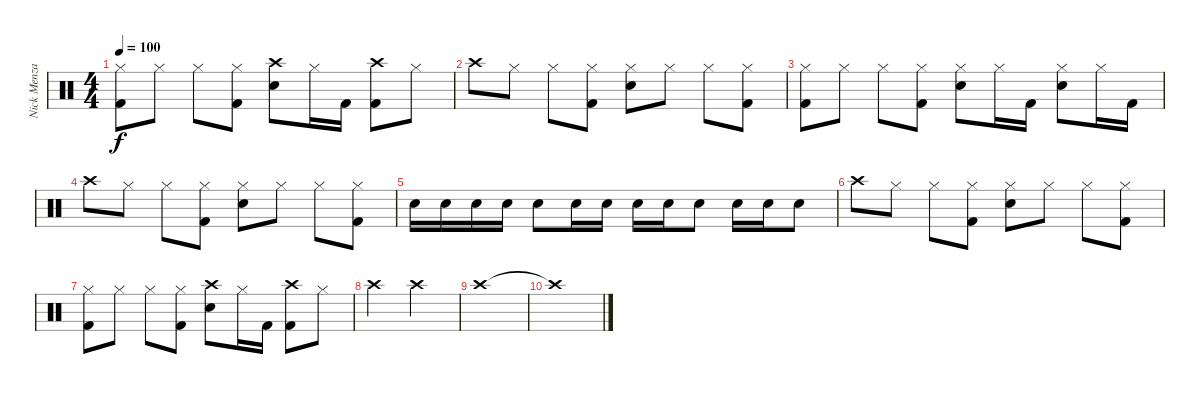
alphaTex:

\track ("Nick Menza" "Nick Menza") {instrument percussion}
\staff {score}
\articulation defaults
\ts (4 4)
\tempo 100
\clef neutral
\ks c
("Hi-Hat (closed)" "Kick (hit) 2").8{dy f} "Hi-Hat (closed)".8 "Hi-Hat (closed)".8 ("Hi-Hat (closed)" "Kick (hit) 2").8 ("Crash high (hit)" "Snare (hit) 2").8 "Hi-Hat (closed)".16 "Kick (hit) 2".16 ("Crash high (hit)" "Kick (hit) 2").8 "Hi-Hat (closed)".8 |
"Crash high (hit)".8 "Hi-Hat (closed)".8 "Hi-Hat (closed)".8 ("Hi-Hat (closed)" "Kick (hit) 2").8 ("Hi-Hat (closed)" "Snare (hit) 2").8 "Hi-Hat (closed)".8 "Hi-Hat (closed)".8 ("Hi-Hat (closed)" "Kick (hit) 2").8 |
("Hi-Hat (closed)" "Kick (hit) 2").8 "Hi-Hat (closed)".8 "Hi-Hat (closed)".8 ("Hi-Hat (closed)" "Kick (hit) 2").8 ("Hi-Hat (closed)" "Snare (hit) 2").8 "Hi-Hat (closed)".16 "Kick (hit) 2".16 ("Hi-Hat (closed)" "Snare (hit) 2").8 "Hi-Hat (closed)".16 "Kick (hit) 2".16 |
"Crash high (hit)".8 "Hi-Hat (closed)".8 "Hi-Hat (closed)".8 ("Hi-Hat (closed)" "Kick (hit) 2").8 ("Hi-Hat (closed)" "Snare (hit) 2").8 "Hi-Hat (closed)".8 "Hi-Hat (closed)".8 ("Hi-Hat (closed)" "Kick (hit) 2").8 |
"Snare (hit) 2".16 "Snare (hit) 2".16 "Snare (hit) 2".16 "Snare (hit) 2".16 "Snare (hit) 2".8 "Snare (hit) 2".16 "Snare (hit) 2".16 "Snare (hit) 2".16 "Snare (hit) 2".16 "Snare (hit) 2".8 "Snare (hit) 2".16 "Snare (hit) 2".16 "Snare (hit) 2".8 |
"Crash high (hit)".8 "Hi-Hat (closed)".8 "Hi-Hat (closed)".8 ("Hi-Hat (closed)" "Kick (hit) 2").8 ("Hi-Hat (closed)" "Snare (hit) 2").8 "Hi-Hat (closed)".8 "Hi-Hat (closed)".8 ("Hi-Hat (closed)" "Kick (hit) 2").8 |
("Hi-Hat (closed)" "Kick (hit) 2").8 "Hi-Hat (closed)".8 "Hi-Hat (closed)".8 ("Hi-Hat (closed)" "Kick (hit) 2").8 ("Crash high (hit)" "Snare (hit) 2").8 "Hi-Hat (closed)".16 "Kick (hit) 2".16 ("Crash high (hit)" "Kick (hit) 2").8 "Hi-Hat (closed)".8 |
"Crash high (hit)".2 "Crash high (hit)".2 |
"Crash high (hit)".1 |
"Crash high (hit)"{t}.1
